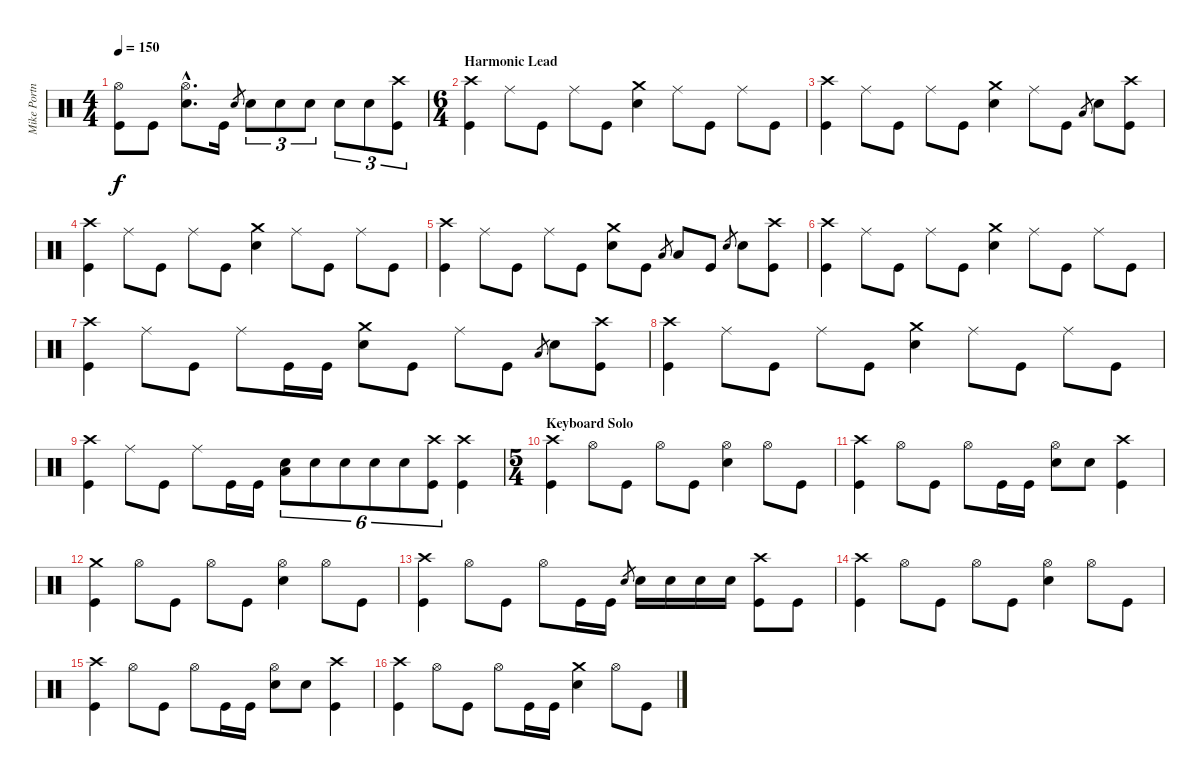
\track ("Mike Portnoy" "Mike Portn") {instrument percussion}
\staff {score}
\articulation defaults
\ts (4 4)
\tempo 150
\clef neutral
\ks c
("Hi-Hat (open)" "Kick (hit)").8{dy f} "Kick (hit)".8 ("Hi-Hat (open)"{hac} "Electric Snare (hit)"{hac}).8{d} "Kick (hit)".16 "Electric Snare (hit)".8{gr} "Electric Snare (hit)".8{tu (3 2)} "Electric Snare (hit)".8{tu (3 2)} "Electric Snare (hit)".8{tu (3 2)} "Electric Snare (hit)".8{tu (3 2)} "Electric Snare (hit)".8{tu (3 2)} ("Crash high (hit)" "Kick (hit)").8{tu (3 2)} |
\ts (6 4)
\section ("" "Harmonic Lead")
("Crash high (hit)" "Kick (hit)").4 "Ride (middle)".8 "Kick (hit)".8 "Ride (middle)".8 "Kick (hit)".8 ("Crash medium (hit)" "Electric Snare (hit)").4 "Ride (middle)".8 "Kick (hit)".8 "Ride (middle)".8 "Kick (hit)".8 |
("Crash high (hit)" "Kick (hit)").4 "Ride (middle)".8 "Kick (hit)".8 "Ride (middle)".8 "Kick (hit)".8 ("Crash medium (hit)" "Electric Snare (hit)").4 "Ride (middle)".8 "Kick (hit)".8 "Low Tom (hit)".8{gr} "Electric Snare (hit)".8 ("Crash high (hit)" "Kick (hit)").8 |
("Crash high (hit)" "Kick (hit)").4 "Ride (middle)".8 "Kick (hit)".8 "Ride (middle)".8 "Kick (hit)".8 ("Crash medium (hit)" "Electric Snare (hit)").4 "Ride (middle)".8 "Kick (hit)".8 "Ride (middle)".8 "Kick (hit)".8 |
("Crash high (hit)" "Kick (hit)").4 "Ride (middle)".8 "Kick (hit)".8 "Ride (middle)".8 "Kick (hit)".8 ("Crash medium (hit)" "Electric Snare (hit)").8 "Kick (hit)".8 "Low Tom (hit)".8{gr} "Low Tom (hit)".8 "Kick (hit)".8 "Electric Snare (hit)".8{gr} "Electric Snare (hit)".8 ("Crash high (hit)" "Kick (hit)").8 |
("Crash high (hit)" "Kick (hit)").4 "Ride (middle)".8 "Kick (hit)".8 "Ride (middle)".8 "Kick (hit)".8 ("Crash medium (hit)" "Electric Snare (hit)").4 "Ride (middle)".8 "Kick (hit)".8 "Ride (middle)".8 "Kick (hit)".8 |
("Crash high (hit)" "Kick (hit)").4 "Ride (middle)".8 "Kick (hit)".8 "Ride (middle)".8 "Kick (hit)".16 "Kick (hit)".16 ("Crash medium (hit)" "Electric Snare (hit)").8 "Kick (hit)".8 "Ride (middle)".8 "Kick (hit)".8 "Low Tom (hit)".8{gr} "Electric Snare (hit)".8 ("Crash high (hit)" "Kick (hit)").8 |
("Crash high (hit)" "Kick (hit)").4 "Ride (middle)".8 "Kick (hit)".8 "Ride (middle)".8 "Kick (hit)".8 ("Crash medium (hit)" "Electric Snare (hit)").4 "Ride (middle)".8 "Kick (hit)".8 "Ride (middle)".8 "Kick (hit)".8 |
("Crash high (hit)" "Kick (hit)").4 "Ride (middle)".8 "Kick (hit)".8 "Ride (middle)".8 "Kick (hit)".16 "Kick (hit)".16 ("Low Tom (hit)" "Electric Snare (hit)").8{tu (6 4)} "Electric Snare (hit)".8{tu (6 4)} "Electric Snare (hit)".8{tu (6 4)} "Electric Snare (hit)".8{tu (6 4)} "Electric Snare (hit)".8{tu (6 4)} ("Crash high (hit)" "Kick (hit)").8{tu (6 4)} ("Crash high (hit)" "Kick (hit)").4 |
\ts (5 4)
\section ("" "Keyboard Solo")
("Crash high (hit)" "Kick (hit)").4 "Hi-Hat (open)".8 "Kick (hit)".8 "Hi-Hat (open)".8 "Kick (hit)".8 ("Hi-Hat (open)" "Electric Snare (hit)").4 "Hi-Hat (open)".8 "Kick (hit)".8 |
("Crash high (hit)" "Kick (hit)").4 "Hi-Hat (open)".8 "Kick (hit)".8 "Hi-Hat (open)".8 "Kick (hit)".16 "Kick (hit)".16 ("Hi-Hat (open)" "Electric Snare (hit)").8 "Electric Snare (hit)".8 ("Crash high (hit)" "Kick (hit)").4 |
("Crash medium (hit)" "Kick (hit)").4 "Hi-Hat (open)".8 "Kick (hit)".8 "Hi-Hat (open)".8 "Kick (hit)".8 ("Hi-Hat (open)" "Electric Snare (hit)").4 "Hi-Hat (open)".8 "Kick (hit)".8 |
("Crash high (hit)" "Kick (hit)").4 "Hi-Hat (open)".8 "Kick (hit)".8 "Hi-Hat (open)".8 "Kick (hit)".16 "Kick (hit)".16 "Electric Snare (hit)".8{gr} "Electric Snare (hit)".16 "Electric Snare (hit)".16 "Electric Snare (hit)".16 "Electric Snare (hit)".16 ("Crash high (hit)" "Kick (hit)").8 "Kick (hit)".8 |
("Crash high (hit)" "Kick (hit)").4 "Hi-Hat (open)".8 "Kick (hit)".8 "Hi-Hat (open)".8 "Kick (hit)".8 ("Hi-Hat (open)" "Electric Snare (hit)").4 "Hi-Hat (open)".8 "Kick (hit)".8 |
("Crash high (hit)" "Kick (hit)").4 "Hi-Hat (open)".8 "Kick (hit)".8 "Hi-Hat (open)".8 "Kick (hit)".16 "Kick (hit)".16 ("Hi-Hat (open)" "Electric Snare (hit)").8 "Electric Snare (hit)".8 ("Crash high (hit)" "Kick (hit)").4 |
("Crash high (hit)" "Kick (hit)").4 "Hi-Hat (open)".8 "Kick (hit)".8 "Hi-Hat (open)".8 "Kick (hit)".16 "Kick (hit)".16 ("Crash medium (hit)" "Electric Snare (hit)").4 "Hi-Hat (open)".8 "Kick (hit)".8
